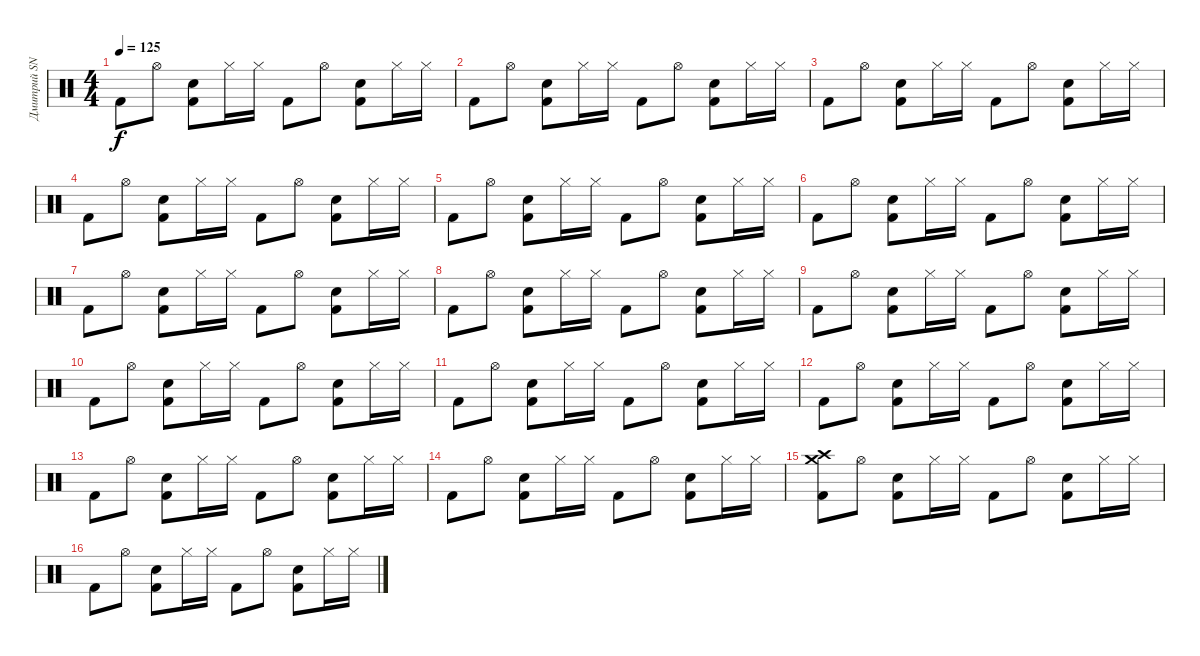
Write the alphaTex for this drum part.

\track ("Дмитрий SNAKE Хакимов" "Дмитрий SN") {instrument percussion}
\staff {score}
\articulation defaults
\ts (4 4)
\tempo 125
\clef neutral
\ks c "Kick (hit) 2".8{dy f} "Hi-Hat (open)".8
("Snare (hit) 2" "Kick (hit) 2").8 "Hi-Hat (closed)".16 "Hi-Hat (closed)".16 "Kick (hit) 2".8 "Hi-Hat (open)".8 ("Snare (hit) 2" "Kick (hit) 2").8 "Hi-Hat (closed)".16 "Hi-Hat (closed)".16 |
"Kick (hit) 2".8 "Hi-Hat (open)".8 ("Snare (hit) 2" "Kick (hit) 2").8 "Hi-Hat (closed)".16 "Hi-Hat (closed)".16 "Kick (hit) 2".8 "Hi-Hat (open)".8 ("Snare (hit) 2" "Kick (hit) 2").8 "Hi-Hat (closed)".16 "Hi-Hat (closed)".16 |
"Kick (hit) 2".8 "Hi-Hat (open)".8 ("Snare (hit) 2" "Kick (hit) 2").8 "Hi-Hat (closed)".16 "Hi-Hat (closed)".16 "Kick (hit) 2".8 "Hi-Hat (open)".8 ("Snare (hit) 2" "Kick (hit) 2").8 "Hi-Hat (closed)".16 "Hi-Hat (closed)".16 |
"Kick (hit) 2".8 "Hi-Hat (open)".8 ("Snare (hit) 2" "Kick (hit) 2").8 "Hi-Hat (closed)".16 "Hi-Hat (closed)".16 "Kick (hit) 2".8 "Hi-Hat (open)".8 ("Snare (hit) 2" "Kick (hit) 2").8 "Hi-Hat (closed)".16 "Hi-Hat (closed)".16 |
"Kick (hit) 2".8 "Hi-Hat (open)".8 ("Snare (hit) 2" "Kick (hit) 2").8 "Hi-Hat (closed)".16 "Hi-Hat (closed)".16 "Kick (hit) 2".8 "Hi-Hat (open)".8 ("Snare (hit) 2" "Kick (hit) 2").8 "Hi-Hat (closed)".16 "Hi-Hat (closed)".16 |
"Kick (hit) 2".8 "Hi-Hat (open)".8 ("Snare (hit) 2" "Kick (hit) 2").8 "Hi-Hat (closed)".16 "Hi-Hat (closed)".16 "Kick (hit) 2".8 "Hi-Hat (open)".8 ("Snare (hit) 2" "Kick (hit) 2").8 "Hi-Hat (closed)".16 "Hi-Hat (closed)".16 |
"Kick (hit) 2".8 "Hi-Hat (open)".8 ("Snare (hit) 2" "Kick (hit) 2").8 "Hi-Hat (closed)".16 "Hi-Hat (closed)".16 "Kick (hit) 2".8 "Hi-Hat (open)".8 ("Snare (hit) 2" "Kick (hit) 2").8 "Hi-Hat (closed)".16 "Hi-Hat (closed)".16 |
"Kick (hit) 2".8 "Hi-Hat (open)".8 ("Snare (hit) 2" "Kick (hit) 2").8 "Hi-Hat (closed)".16 "Hi-Hat (closed)".16 "Kick (hit) 2".8 "Hi-Hat (open)".8 ("Snare (hit) 2" "Kick (hit) 2").8 "Hi-Hat (closed)".16 "Hi-Hat (closed)".16 |
"Kick (hit) 2".8 "Hi-Hat (open)".8 ("Snare (hit) 2" "Kick (hit) 2").8 "Hi-Hat (closed)".16 "Hi-Hat (closed)".16 "Kick (hit) 2".8 "Hi-Hat (open)".8 ("Snare (hit) 2" "Kick (hit) 2").8 "Hi-Hat (closed)".16 "Hi-Hat (closed)".16 |
"Kick (hit) 2".8 "Hi-Hat (open)".8 ("Snare (hit) 2" "Kick (hit) 2").8 "Hi-Hat (closed)".16 "Hi-Hat (closed)".16 "Kick (hit) 2".8 "Hi-Hat (open)".8 ("Snare (hit) 2" "Kick (hit) 2").8 "Hi-Hat (closed)".16 "Hi-Hat (closed)".16 |
"Kick (hit) 2".8 "Hi-Hat (open)".8 ("Snare (hit) 2" "Kick (hit) 2").8 "Hi-Hat (closed)".16 "Hi-Hat (closed)".16 "Kick (hit) 2".8 "Hi-Hat (open)".8 ("Snare (hit) 2" "Kick (hit) 2").8 "Hi-Hat (closed)".16 "Hi-Hat (closed)".16 |
"Kick (hit) 2".8 "Hi-Hat (open)".8 ("Snare (hit) 2" "Kick (hit) 2").8 "Hi-Hat (closed)".16 "Hi-Hat (closed)".16 "Kick (hit) 2".8 "Hi-Hat (open)".8 ("Snare (hit) 2" "Kick (hit) 2").8 "Hi-Hat (closed)".16 "Hi-Hat (closed)".16 |
"Kick (hit) 2".8 "Hi-Hat (open)".8 ("Snare (hit) 2" "Kick (hit) 2").8 "Hi-Hat (closed)".16 "Hi-Hat (closed)".16 "Kick (hit) 2".8 "Hi-Hat (open)".8 ("Snare (hit) 2" "Kick (hit) 2").8 "Hi-Hat (closed)".16 "Hi-Hat (closed)".16 |
"Kick (hit) 2".8 "Hi-Hat (open)".8 ("Snare (hit) 2" "Kick (hit) 2").8 "Hi-Hat (closed)".16 "Hi-Hat (closed)".16 "Kick (hit) 2".8 "Hi-Hat (open)".8 ("Snare (hit) 2" "Kick (hit) 2").8 "Hi-Hat (closed)".16 "Hi-Hat (closed)".16 |
("Crash high (hit)" "Crash medium (hit)" "Kick (hit) 2").8 "Hi-Hat (open)".8 ("Snare (hit) 2" "Kick (hit) 2").8 "Hi-Hat (closed)".16 "Hi-Hat (closed)".16 "Kick (hit) 2".8 "Hi-Hat (open)".8 ("Snare (hit) 2" "Kick (hit) 2").8 "Hi-Hat (closed)".16 "Hi-Hat (closed)".16 |
"Kick (hit) 2".8 "Hi-Hat (open)".8 ("Snare (hit) 2" "Kick (hit) 2").8 "Hi-Hat (closed)".16 "Hi-Hat (closed)".16 "Kick (hit) 2".8 "Hi-Hat (open)".8 ("Snare (hit) 2" "Kick (hit) 2").8 "Hi-Hat (closed)".16 "Hi-Hat (closed)".16
